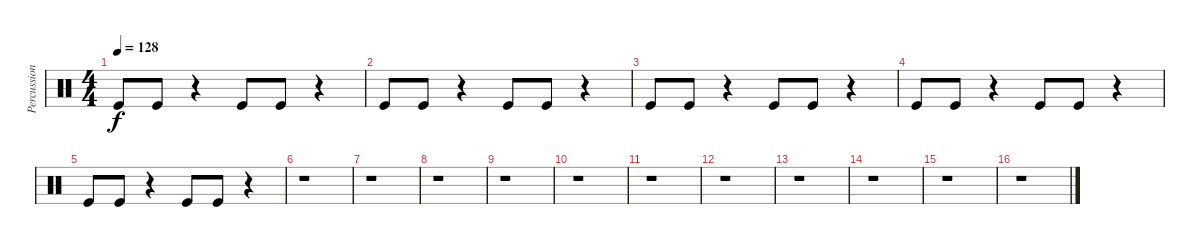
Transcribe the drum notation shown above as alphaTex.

\track ("Percussions" "Percussion") {instrument percussion}
\staff {score}
\articulation defaults
\ts (4 4)
\tempo 128
\clef neutral
\ks c "Kick (hit)".8{dy f} "Kick (hit)".8
r.4 "Kick (hit)".8 "Kick (hit)".8 r.4 |
"Kick (hit)".8 "Kick (hit)".8 r.4 "Kick (hit)".8 "Kick (hit)".8 r.4 |
"Kick (hit)".8 "Kick (hit)".8 r.4 "Kick (hit)".8 "Kick (hit)".8 r.4 |
"Kick (hit)".8 "Kick (hit)".8 r.4 "Kick (hit)".8 "Kick (hit)".8 r.4 |
"Kick (hit)".8 "Kick (hit)".8 r.4 "Kick (hit)".8 "Kick (hit)".8 r.4 |
r.1 |
r.1 |
r.1 |
r.1 |
r.1 |
r.1 |
r.1 |
r.1 |
r.1 |
r.1 |
r.1
